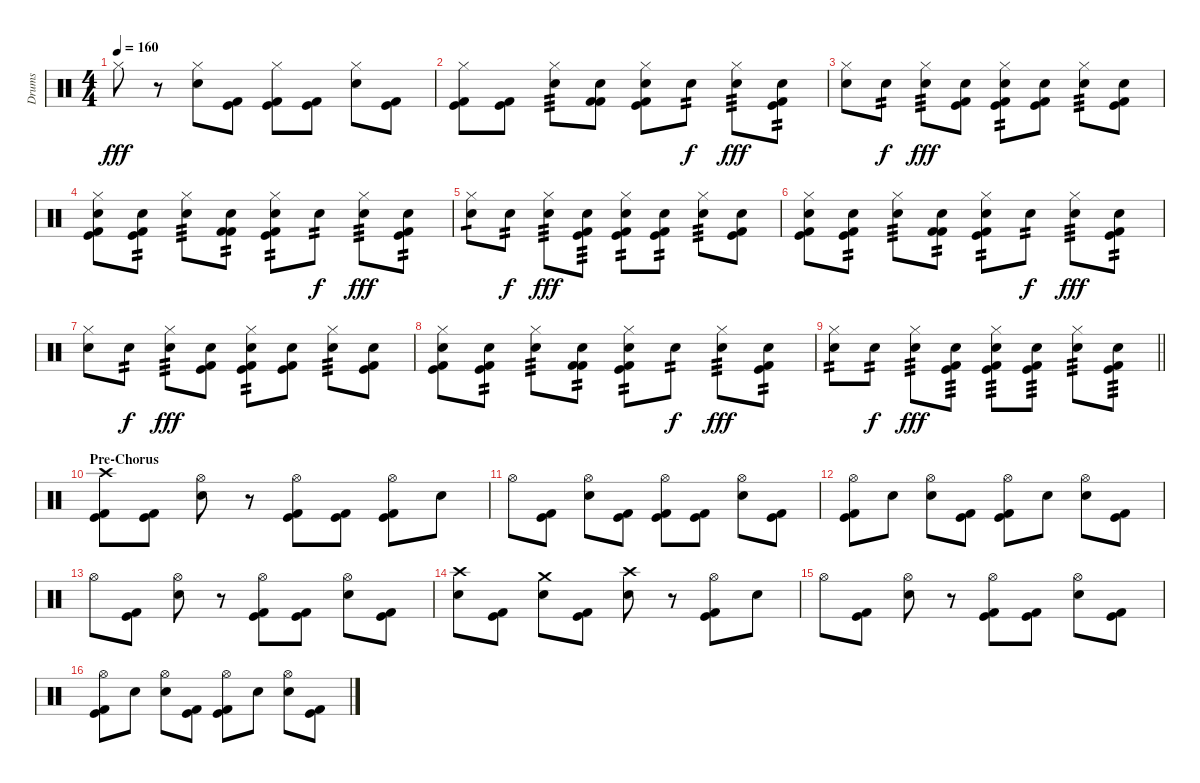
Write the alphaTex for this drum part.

\track ("Drums" "Drums") {instrument percussion}
\staff {score}
\articulation defaults
\ts (4 4)
\tempo 160
\clef neutral
\ks c "Hi-Hat (closed)".8{dy fff}
r.8 ("Hi-Hat (closed)" "Electric Snare (hit)").8 ("Kick (hit)" "Kick (hit) 2").8 ("Hi-Hat (closed)" "Kick (hit)" "Kick (hit) 2").8 ("Kick (hit)" "Kick (hit) 2").8 ("Hi-Hat (closed)" "Electric Snare (hit)").8 ("Kick (hit)" "Kick (hit) 2").8 |
("Hi-Hat (closed)" "Kick (hit)" "Kick (hit) 2").8 ("Kick (hit)" "Kick (hit) 2").8 ("Hi-Hat (closed)" "Electric Snare (hit)").8{tp 3} ("Electric Snare (hit)" "Kick (hit) 2" "Kick (hit) 2").8 ("Hi-Hat (closed)" "Electric Snare (hit)" "Kick (hit)" "Kick (hit) 2").8 "Electric Snare (hit)".8{tp 2 dy f} ("Hi-Hat (closed)" "Electric Snare (hit)").8{tp 3 dy fff} ("Electric Snare (hit)" "Kick (hit)" "Kick (hit) 2").8{tp 2} |
("Hi-Hat (closed)" "Electric Snare (hit)").8 "Electric Snare (hit)".8{tp 2 dy f} ("Hi-Hat (closed)" "Electric Snare (hit)").8{tp 3 dy fff} ("Electric Snare (hit)" "Kick (hit)" "Kick (hit) 2").8 ("Hi-Hat (closed)" "Electric Snare (hit)" "Kick (hit)" "Kick (hit) 2").8{tp 2} ("Electric Snare (hit)" "Kick (hit)" "Kick (hit) 2").8 ("Hi-Hat (closed)" "Electric Snare (hit)").8{tp 3} ("Electric Snare (hit)" "Kick (hit)" "Kick (hit) 2").8 |
("Hi-Hat (closed)" "Electric Snare (hit)" "Kick (hit)" "Kick (hit) 2").8 ("Electric Snare (hit)" "Kick (hit)" "Kick (hit) 2").8{tp 2} ("Hi-Hat (closed)" "Electric Snare (hit)").8{tp 3} ("Electric Snare (hit)" "Kick (hit) 2" "Kick (hit) 2").8{tp 2} ("Hi-Hat (closed)" "Electric Snare (hit)" "Kick (hit)" "Kick (hit) 2").8{tp 2} "Electric Snare (hit)".8{tp 2 dy f} ("Hi-Hat (closed)" "Electric Snare (hit)").8{tp 3 dy fff} ("Electric Snare (hit)" "Kick (hit)" "Kick (hit) 2").8{tp 2} |
("Hi-Hat (closed)" "Electric Snare (hit)").8{tp 1} "Electric Snare (hit)".8{tp 2 dy f} ("Hi-Hat (closed)" "Electric Snare (hit)").8{tp 3 dy fff} ("Electric Snare (hit)" "Kick (hit)" "Kick (hit) 2").8{tp 3} ("Hi-Hat (closed)" "Electric Snare (hit)" "Kick (hit)" "Kick (hit) 2").8{tp 2} ("Electric Snare (hit)" "Kick (hit)" "Kick (hit) 2").8{tp 2} ("Hi-Hat (closed)" "Electric Snare (hit)").8{tp 3} ("Electric Snare (hit)" "Kick (hit)" "Kick (hit) 2").8 |
("Hi-Hat (closed)" "Electric Snare (hit)" "Kick (hit)" "Kick (hit) 2").8 ("Electric Snare (hit)" "Kick (hit)" "Kick (hit) 2").8{tp 2} ("Hi-Hat (closed)" "Electric Snare (hit)").8{tp 3} ("Electric Snare (hit)" "Kick (hit) 2" "Kick (hit) 2").8{tp 2} ("Hi-Hat (closed)" "Electric Snare (hit)" "Kick (hit)" "Kick (hit) 2").8{tp 2} "Electric Snare (hit)".8{tp 2 dy f} ("Hi-Hat (closed)" "Electric Snare (hit)").8{tp 3 dy fff} ("Electric Snare (hit)" "Kick (hit)" "Kick (hit) 2").8{tp 2} |
("Hi-Hat (closed)" "Electric Snare (hit)").8 "Electric Snare (hit)".8{tp 2 dy f} ("Hi-Hat (closed)" "Electric Snare (hit)").8{tp 3 dy fff} ("Electric Snare (hit)" "Kick (hit)" "Kick (hit) 2").8 ("Hi-Hat (closed)" "Electric Snare (hit)" "Kick (hit)" "Kick (hit) 2").8{tp 2} ("Electric Snare (hit)" "Kick (hit)" "Kick (hit) 2").8 ("Hi-Hat (closed)" "Electric Snare (hit)").8{tp 3} ("Electric Snare (hit)" "Kick (hit)" "Kick (hit) 2").8 |
("Hi-Hat (closed)" "Electric Snare (hit)" "Kick (hit)" "Kick (hit) 2").8 ("Electric Snare (hit)" "Kick (hit)" "Kick (hit) 2").8{tp 2} ("Hi-Hat (closed)" "Electric Snare (hit)").8{tp 3} ("Electric Snare (hit)" "Kick (hit) 2" "Kick (hit) 2").8{tp 2} ("Hi-Hat (closed)" "Electric Snare (hit)" "Kick (hit)" "Kick (hit) 2").8{tp 2} "Electric Snare (hit)".8{tp 2 dy f} ("Hi-Hat (closed)" "Electric Snare (hit)").8{tp 3 dy fff} ("Electric Snare (hit)" "Kick (hit)" "Kick (hit) 2").8{tp 2} |
\barLineRight lightlight
("Hi-Hat (closed)" "Electric Snare (hit)").8{tp 2} "Electric Snare (hit)".8{tp 2 dy f} ("Hi-Hat (closed)" "Electric Snare (hit)").8{tp 3 dy fff} ("Electric Snare (hit)" "Kick (hit)" "Kick (hit) 2").8{tp 3} ("Hi-Hat (closed)" "Electric Snare (hit)" "Kick (hit)" "Kick (hit) 2").8{tp 3} ("Electric Snare (hit)" "Kick (hit)" "Kick (hit) 2").8{tp 3} ("Hi-Hat (closed)" "Electric Snare (hit)").8{tp 3} ("Electric Snare (hit)" "Kick (hit)" "Kick (hit) 2").8{tp 3} |
\section ("" "Pre-Chorus")
("Crash high (hit)" "Kick (hit)" "Kick (hit) 2").8 ("Kick (hit)" "Kick (hit) 2").8 ("Hi-Hat (open)" "Electric Snare (hit)").8 r.8 ("Hi-Hat (open)" "Kick (hit)" "Kick (hit) 2").8 ("Kick (hit)" "Kick (hit) 2").8 ("Hi-Hat (open)" "Kick (hit)" "Kick (hit) 2").8 "Electric Snare (hit)".8 |
"Hi-Hat (open)".8 ("Kick (hit)" "Kick (hit) 2").8 ("Hi-Hat (open)" "Electric Snare (hit)").8 ("Kick (hit)" "Kick (hit) 2").8 ("Hi-Hat (open)" "Kick (hit)" "Kick (hit) 2").8 ("Kick (hit)" "Kick (hit) 2").8 ("Hi-Hat (open)" "Electric Snare (hit)").8 ("Kick (hit)" "Kick (hit) 2").8 |
("Hi-Hat (open)" "Kick (hit)" "Kick (hit) 2").8 "Electric Snare (hit)".8 ("Hi-Hat (open)" "Electric Snare (hit)").8 ("Kick (hit)" "Kick (hit) 2").8 ("Hi-Hat (open)" "Kick (hit)" "Kick (hit) 2").8 "Electric Snare (hit)".8 ("Hi-Hat (open)" "Electric Snare (hit)").8 ("Kick (hit)" "Kick (hit) 2").8 |
"Hi-Hat (open)".8 ("Kick (hit)" "Kick (hit) 2").8 ("Hi-Hat (open)" "Electric Snare (hit)").8 r.8 ("Hi-Hat (open)" "Kick (hit)" "Kick (hit) 2").8 ("Kick (hit)" "Kick (hit) 2").8 ("Hi-Hat (open)" "Electric Snare (hit)").8 ("Kick (hit)" "Kick (hit) 2").8 |
("Crash high (hit)" "Electric Snare (hit)").8 ("Kick (hit)" "Kick (hit) 2").8 ("Crash medium (hit)" "Electric Snare (hit)").8 ("Kick (hit)" "Kick (hit) 2").8 ("Crash high (hit)" "Electric Snare (hit)").8 r.8 ("Hi-Hat (open)" "Kick (hit)" "Kick (hit) 2").8 "Electric Snare (hit)".8 |
"Hi-Hat (open)".8 ("Kick (hit)" "Kick (hit) 2").8 ("Hi-Hat (open)" "Electric Snare (hit)").8 r.8 ("Hi-Hat (open)" "Kick (hit)" "Kick (hit) 2").8 ("Kick (hit)" "Kick (hit) 2").8 ("Hi-Hat (open)" "Electric Snare (hit)").8 ("Kick (hit)" "Kick (hit) 2").8 |
("Hi-Hat (open)" "Kick (hit)" "Kick (hit) 2").8 "Electric Snare (hit)".8 ("Hi-Hat (open)" "Electric Snare (hit)").8 ("Kick (hit)" "Kick (hit) 2").8 ("Hi-Hat (open)" "Kick (hit)" "Kick (hit) 2").8 "Electric Snare (hit)".8 ("Hi-Hat (open)" "Electric Snare (hit)").8 ("Kick (hit)" "Kick (hit) 2").8
